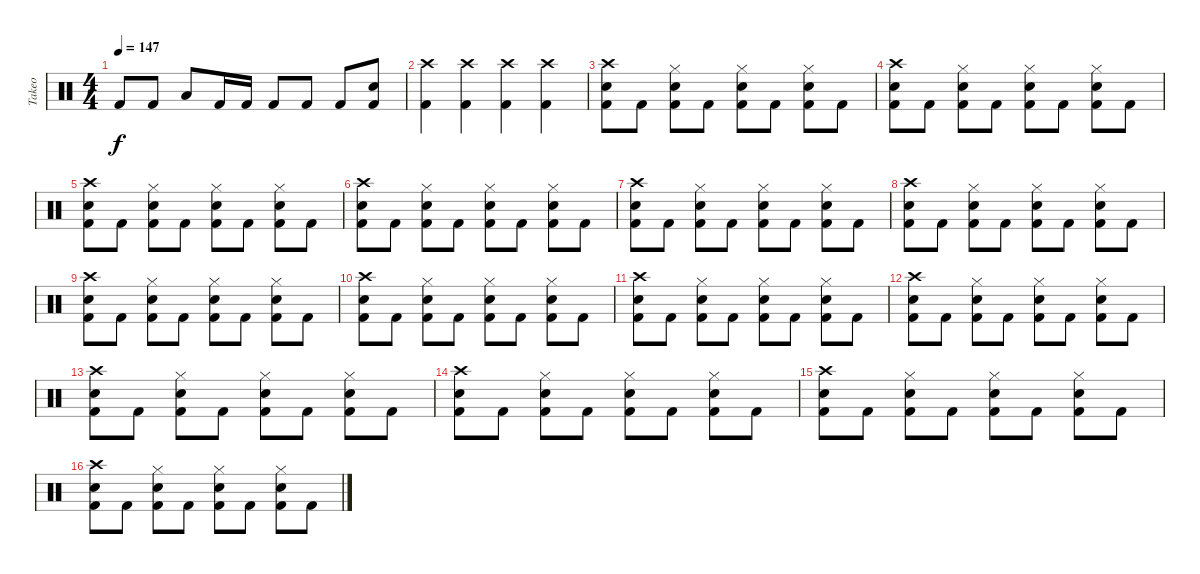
\track ("Takeo" "Takeo") {instrument percussion}
\staff {score}
\articulation defaults
\ts (4 4)
\tempo 147
\clef neutral
\ks c "Kick (hit) 2".8{dy f} "Kick (hit) 2".8 "Low Tom (hit)".8 "Kick (hit) 2".16 "Kick (hit) 2".16 "Kick (hit) 2".8 "Kick (hit) 2".8 "Kick (hit) 2".8
("Kick (hit) 2" "Snare (hit) 2").8 |
("Kick (hit) 2" "Crash high (hit)").4 ("Kick (hit) 2" "Crash high (hit)").4 ("Kick (hit) 2" "Crash high (hit)").4 ("Kick (hit) 2" "Crash high (hit)").4 |
("Kick (hit) 2" "Snare (hit) 2" "Crash high (hit)").8 "Kick (hit) 2".8 ("Kick (hit) 2" "Snare (hit) 2" "Hi-Hat (closed)").8 "Kick (hit) 2".8 ("Kick (hit) 2" "Snare (hit) 2" "Hi-Hat (closed)").8 "Kick (hit) 2".8 ("Kick (hit) 2" "Snare (hit) 2" "Hi-Hat (closed)").8 "Kick (hit) 2".8 |
("Kick (hit) 2" "Snare (hit) 2" "Crash high (hit)").8 "Kick (hit) 2".8 ("Kick (hit) 2" "Snare (hit) 2" "Hi-Hat (closed)").8 "Kick (hit) 2".8 ("Kick (hit) 2" "Snare (hit) 2" "Hi-Hat (closed)").8 "Kick (hit) 2".8 ("Kick (hit) 2" "Snare (hit) 2" "Hi-Hat (closed)").8 "Kick (hit) 2".8 |
("Kick (hit) 2" "Snare (hit) 2" "Crash high (hit)").8 "Kick (hit) 2".8 ("Kick (hit) 2" "Snare (hit) 2" "Hi-Hat (closed)").8 "Kick (hit) 2".8 ("Kick (hit) 2" "Snare (hit) 2" "Hi-Hat (closed)").8 "Kick (hit) 2".8 ("Kick (hit) 2" "Snare (hit) 2" "Hi-Hat (closed)").8 "Kick (hit) 2".8 |
("Kick (hit) 2" "Snare (hit) 2" "Crash high (hit)").8 "Kick (hit) 2".8 ("Kick (hit) 2" "Snare (hit) 2" "Hi-Hat (closed)").8 "Kick (hit) 2".8 ("Kick (hit) 2" "Snare (hit) 2" "Hi-Hat (closed)").8 "Kick (hit) 2".8 ("Kick (hit) 2" "Snare (hit) 2" "Hi-Hat (closed)").8 "Kick (hit) 2".8 |
("Kick (hit) 2" "Snare (hit) 2" "Crash high (hit)").8 "Kick (hit) 2".8 ("Kick (hit) 2" "Snare (hit) 2" "Hi-Hat (closed)").8 "Kick (hit) 2".8 ("Kick (hit) 2" "Snare (hit) 2" "Hi-Hat (closed)").8 "Kick (hit) 2".8 ("Kick (hit) 2" "Snare (hit) 2" "Hi-Hat (closed)").8 "Kick (hit) 2".8 |
("Kick (hit) 2" "Snare (hit) 2" "Crash high (hit)").8 "Kick (hit) 2".8 ("Kick (hit) 2" "Snare (hit) 2" "Hi-Hat (closed)").8 "Kick (hit) 2".8 ("Kick (hit) 2" "Snare (hit) 2" "Hi-Hat (closed)").8 "Kick (hit) 2".8 ("Kick (hit) 2" "Snare (hit) 2" "Hi-Hat (closed)").8 "Kick (hit) 2".8 |
("Kick (hit) 2" "Snare (hit) 2" "Crash high (hit)").8 "Kick (hit) 2".8 ("Kick (hit) 2" "Snare (hit) 2" "Hi-Hat (closed)").8 "Kick (hit) 2".8 ("Kick (hit) 2" "Snare (hit) 2" "Hi-Hat (closed)").8 "Kick (hit) 2".8 ("Kick (hit) 2" "Snare (hit) 2" "Hi-Hat (closed)").8 "Kick (hit) 2".8 |
("Kick (hit) 2" "Snare (hit) 2" "Crash high (hit)").8 "Kick (hit) 2".8 ("Kick (hit) 2" "Snare (hit) 2" "Hi-Hat (closed)").8 "Kick (hit) 2".8 ("Kick (hit) 2" "Snare (hit) 2" "Hi-Hat (closed)").8 "Kick (hit) 2".8 ("Kick (hit) 2" "Snare (hit) 2" "Hi-Hat (closed)").8 "Kick (hit) 2".8 |
("Kick (hit) 2" "Snare (hit) 2" "Crash high (hit)").8 "Kick (hit) 2".8 ("Kick (hit) 2" "Snare (hit) 2" "Hi-Hat (closed)").8 "Kick (hit) 2".8 ("Kick (hit) 2" "Snare (hit) 2" "Hi-Hat (closed)").8 "Kick (hit) 2".8 ("Kick (hit) 2" "Snare (hit) 2" "Hi-Hat (closed)").8 "Kick (hit) 2".8 |
("Kick (hit) 2" "Snare (hit) 2" "Crash high (hit)").8 "Kick (hit) 2".8 ("Kick (hit) 2" "Snare (hit) 2" "Hi-Hat (closed)").8 "Kick (hit) 2".8 ("Kick (hit) 2" "Snare (hit) 2" "Hi-Hat (closed)").8 "Kick (hit) 2".8 ("Kick (hit) 2" "Snare (hit) 2" "Hi-Hat (closed)").8 "Kick (hit) 2".8 |
("Kick (hit) 2" "Snare (hit) 2" "Crash high (hit)").8 "Kick (hit) 2".8 ("Kick (hit) 2" "Snare (hit) 2" "Hi-Hat (closed)").8 "Kick (hit) 2".8 ("Kick (hit) 2" "Snare (hit) 2" "Hi-Hat (closed)").8 "Kick (hit) 2".8 ("Kick (hit) 2" "Snare (hit) 2" "Hi-Hat (closed)").8 "Kick (hit) 2".8 |
("Kick (hit) 2" "Snare (hit) 2" "Crash high (hit)").8 "Kick (hit) 2".8 ("Kick (hit) 2" "Snare (hit) 2" "Hi-Hat (closed)").8 "Kick (hit) 2".8 ("Kick (hit) 2" "Snare (hit) 2" "Hi-Hat (closed)").8 "Kick (hit) 2".8 ("Kick (hit) 2" "Snare (hit) 2" "Hi-Hat (closed)").8 "Kick (hit) 2".8 |
("Kick (hit) 2" "Snare (hit) 2" "Crash high (hit)").8 "Kick (hit) 2".8 ("Kick (hit) 2" "Snare (hit) 2" "Hi-Hat (closed)").8 "Kick (hit) 2".8 ("Kick (hit) 2" "Snare (hit) 2" "Hi-Hat (closed)").8 "Kick (hit) 2".8 ("Kick (hit) 2" "Snare (hit) 2" "Hi-Hat (closed)").8 "Kick (hit) 2".8 |
("Kick (hit) 2" "Snare (hit) 2" "Crash high (hit)").8 "Kick (hit) 2".8 ("Kick (hit) 2" "Snare (hit) 2" "Hi-Hat (closed)").8 "Kick (hit) 2".8 ("Kick (hit) 2" "Snare (hit) 2" "Hi-Hat (closed)").8 "Kick (hit) 2".8 ("Kick (hit) 2" "Snare (hit) 2" "Hi-Hat (closed)").8 "Kick (hit) 2".8
